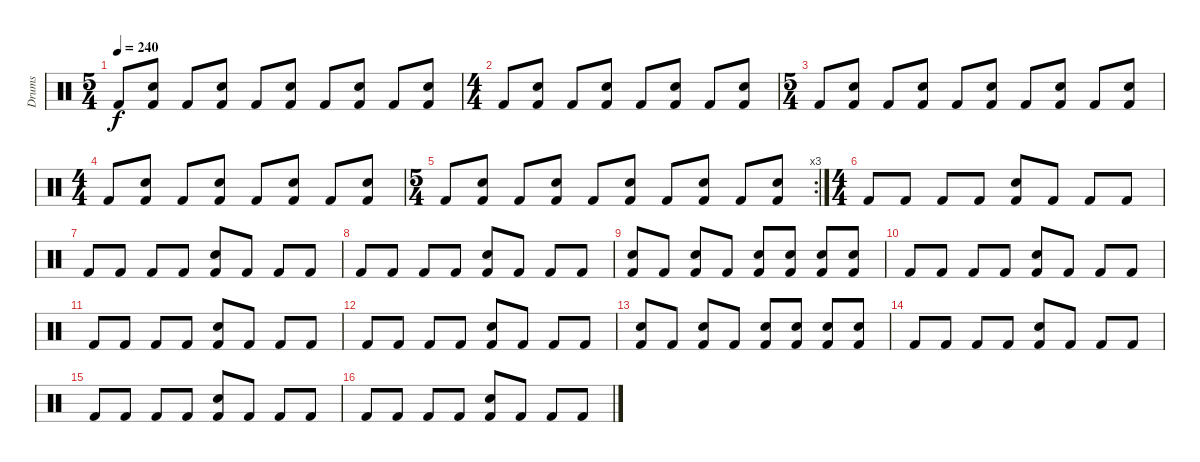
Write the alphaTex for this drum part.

\track ("Drums" "Drums") {instrument percussion}
\staff {score}
\articulation defaults
\ts (5 4)
\tempo 240
\clef neutral
\ks c "Kick (hit) 2".8{dy f}
("Snare (hit) 2" "Kick (hit) 2").8 "Kick (hit) 2".8 ("Snare (hit) 2" "Kick (hit) 2").8 "Kick (hit) 2".8 ("Snare (hit) 2" "Kick (hit) 2").8 "Kick (hit) 2".8 ("Snare (hit) 2" "Kick (hit) 2").8 "Kick (hit) 2".8 ("Snare (hit) 2" "Kick (hit) 2").8 |
\ts (4 4)
"Kick (hit) 2".8 ("Snare (hit) 2" "Kick (hit) 2").8 "Kick (hit) 2".8 ("Snare (hit) 2" "Kick (hit) 2").8 "Kick (hit) 2".8 ("Snare (hit) 2" "Kick (hit) 2").8 "Kick (hit) 2".8 ("Snare (hit) 2" "Kick (hit) 2").8 |
\ts (5 4)
"Kick (hit) 2".8 ("Snare (hit) 2" "Kick (hit) 2").8 "Kick (hit) 2".8 ("Snare (hit) 2" "Kick (hit) 2").8 "Kick (hit) 2".8 ("Snare (hit) 2" "Kick (hit) 2").8 "Kick (hit) 2".8 ("Snare (hit) 2" "Kick (hit) 2").8 "Kick (hit) 2".8 ("Snare (hit) 2" "Kick (hit) 2").8 |
\ts (4 4)
"Kick (hit) 2".8 ("Snare (hit) 2" "Kick (hit) 2").8 "Kick (hit) 2".8 ("Snare (hit) 2" "Kick (hit) 2").8 "Kick (hit) 2".8 ("Snare (hit) 2" "Kick (hit) 2").8 "Kick (hit) 2".8 ("Snare (hit) 2" "Kick (hit) 2").8 |
\rc 3
\ts (5 4)
"Kick (hit) 2".8 ("Snare (hit) 2" "Kick (hit) 2").8 "Kick (hit) 2".8 ("Snare (hit) 2" "Kick (hit) 2").8 "Kick (hit) 2".8 ("Snare (hit) 2" "Kick (hit) 2").8 "Kick (hit) 2".8 ("Snare (hit) 2" "Kick (hit) 2").8 "Kick (hit) 2".8 ("Snare (hit) 2" "Kick (hit) 2").8 |
\ts (4 4)
"Kick (hit) 2".8 "Kick (hit) 2".8 "Kick (hit) 2".8 "Kick (hit) 2".8 ("Snare (hit) 2" "Kick (hit) 2").8 "Kick (hit) 2".8 "Kick (hit) 2".8 "Kick (hit) 2".8 |
"Kick (hit) 2".8 "Kick (hit) 2".8 "Kick (hit) 2".8 "Kick (hit) 2".8 ("Snare (hit) 2" "Kick (hit) 2").8 "Kick (hit) 2".8 "Kick (hit) 2".8 "Kick (hit) 2".8 |
"Kick (hit) 2".8 "Kick (hit) 2".8 "Kick (hit) 2".8 "Kick (hit) 2".8 ("Snare (hit) 2" "Kick (hit) 2").8 "Kick (hit) 2".8 "Kick (hit) 2".8 "Kick (hit) 2".8 |
("Snare (hit) 2" "Kick (hit) 2").8 "Kick (hit) 2".8 ("Snare (hit) 2" "Kick (hit) 2").8 "Kick (hit) 2".8 ("Snare (hit) 2" "Kick (hit) 2").8 ("Snare (hit) 2" "Kick (hit) 2").8 ("Snare (hit) 2" "Kick (hit) 2").8 ("Snare (hit) 2" "Kick (hit) 2").8 |
"Kick (hit) 2".8 "Kick (hit) 2".8 "Kick (hit) 2".8 "Kick (hit) 2".8 ("Snare (hit) 2" "Kick (hit) 2").8 "Kick (hit) 2".8 "Kick (hit) 2".8 "Kick (hit) 2".8 |
"Kick (hit) 2".8 "Kick (hit) 2".8 "Kick (hit) 2".8 "Kick (hit) 2".8 ("Snare (hit) 2" "Kick (hit) 2").8 "Kick (hit) 2".8 "Kick (hit) 2".8 "Kick (hit) 2".8 |
"Kick (hit) 2".8 "Kick (hit) 2".8 "Kick (hit) 2".8 "Kick (hit) 2".8 ("Snare (hit) 2" "Kick (hit) 2").8 "Kick (hit) 2".8 "Kick (hit) 2".8 "Kick (hit) 2".8 |
("Snare (hit) 2" "Kick (hit) 2").8 "Kick (hit) 2".8 ("Snare (hit) 2" "Kick (hit) 2").8 "Kick (hit) 2".8 ("Snare (hit) 2" "Kick (hit) 2").8 ("Snare (hit) 2" "Kick (hit) 2").8 ("Snare (hit) 2" "Kick (hit) 2").8 ("Snare (hit) 2" "Kick (hit) 2").8 |
"Kick (hit) 2".8 "Kick (hit) 2".8 "Kick (hit) 2".8 "Kick (hit) 2".8 ("Snare (hit) 2" "Kick (hit) 2").8 "Kick (hit) 2".8 "Kick (hit) 2".8 "Kick (hit) 2".8 |
"Kick (hit) 2".8 "Kick (hit) 2".8 "Kick (hit) 2".8 "Kick (hit) 2".8 ("Snare (hit) 2" "Kick (hit) 2").8 "Kick (hit) 2".8 "Kick (hit) 2".8 "Kick (hit) 2".8 |
"Kick (hit) 2".8 "Kick (hit) 2".8 "Kick (hit) 2".8 "Kick (hit) 2".8 ("Snare (hit) 2" "Kick (hit) 2").8 "Kick (hit) 2".8 "Kick (hit) 2".8 "Kick (hit) 2".8
